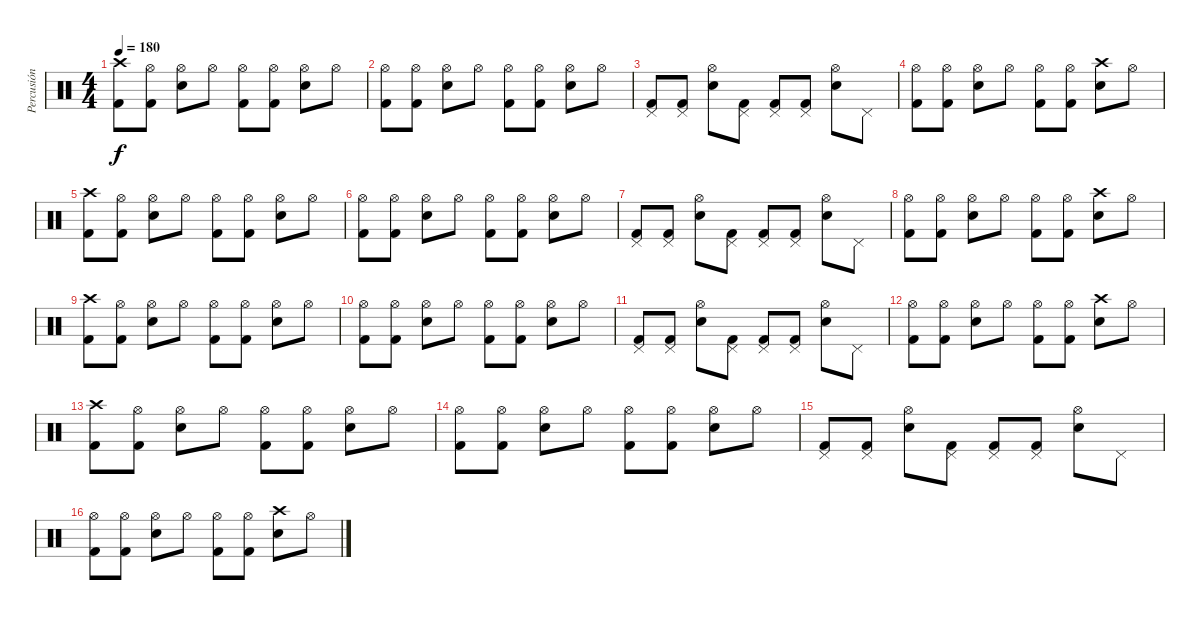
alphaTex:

\track ("Percusión" "Percusión") {instrument percussion}
\staff {score}
\articulation defaults
\ts (4 4)
\tempo 180
\clef neutral
\ks c
("Crash high (hit)" "Kick (hit) 2").8{dy f} ("Hi-Hat (open)" "Kick (hit) 2").8 ("Hi-Hat (open)" "Snare (hit) 2").8 "Hi-Hat (open)".8 ("Hi-Hat (open)" "Kick (hit) 2").8 ("Hi-Hat (open)" "Kick (hit) 2").8 ("Hi-Hat (open)" "Snare (hit) 2").8 "Hi-Hat (open)".8 |
("Hi-Hat (open)" "Kick (hit) 2").8 ("Hi-Hat (open)" "Kick (hit) 2").8 ("Hi-Hat (open)" "Snare (hit) 2").8 "Hi-Hat (open)".8 ("Hi-Hat (open)" "Kick (hit) 2").8 ("Hi-Hat (open)" "Kick (hit) 2").8 ("Hi-Hat (open)" "Snare (hit) 2").8 "Hi-Hat (open)".8 |
("Pedal Hi-Hat (hit)" "Kick (hit) 2").8 ("Pedal Hi-Hat (hit)" "Kick (hit) 2").8 ("Hi-Hat (open)" "Snare (hit) 2").8 ("Pedal Hi-Hat (hit)" "Kick (hit) 2").8 ("Pedal Hi-Hat (hit)" "Kick (hit) 2").8 ("Pedal Hi-Hat (hit)" "Kick (hit) 2").8 ("Hi-Hat (open)" "Snare (hit) 2").8 "Pedal Hi-Hat (hit)".8 |
("Hi-Hat (open)" "Kick (hit) 2").8 ("Hi-Hat (open)" "Kick (hit) 2").8 ("Hi-Hat (open)" "Snare (hit) 2").8 "Hi-Hat (open)".8 ("Hi-Hat (open)" "Kick (hit) 2").8 ("Hi-Hat (open)" "Kick (hit) 2").8 ("Crash high (hit)" "Snare (hit) 2").8 "Hi-Hat (open)".8 |
("Crash high (hit)" "Kick (hit) 2").8 ("Hi-Hat (open)" "Kick (hit) 2").8 ("Hi-Hat (open)" "Snare (hit) 2").8 "Hi-Hat (open)".8 ("Hi-Hat (open)" "Kick (hit) 2").8 ("Hi-Hat (open)" "Kick (hit) 2").8 ("Hi-Hat (open)" "Snare (hit) 2").8 "Hi-Hat (open)".8 |
("Hi-Hat (open)" "Kick (hit) 2").8 ("Hi-Hat (open)" "Kick (hit) 2").8 ("Hi-Hat (open)" "Snare (hit) 2").8 "Hi-Hat (open)".8 ("Hi-Hat (open)" "Kick (hit) 2").8 ("Hi-Hat (open)" "Kick (hit) 2").8 ("Hi-Hat (open)" "Snare (hit) 2").8 "Hi-Hat (open)".8 |
("Pedal Hi-Hat (hit)" "Kick (hit) 2").8 ("Pedal Hi-Hat (hit)" "Kick (hit) 2").8 ("Hi-Hat (open)" "Snare (hit) 2").8 ("Pedal Hi-Hat (hit)" "Kick (hit) 2").8 ("Pedal Hi-Hat (hit)" "Kick (hit) 2").8 ("Pedal Hi-Hat (hit)" "Kick (hit) 2").8 ("Hi-Hat (open)" "Snare (hit) 2").8 "Pedal Hi-Hat (hit)".8 |
("Hi-Hat (open)" "Kick (hit) 2").8 ("Hi-Hat (open)" "Kick (hit) 2").8 ("Hi-Hat (open)" "Snare (hit) 2").8 "Hi-Hat (open)".8 ("Hi-Hat (open)" "Kick (hit) 2").8 ("Hi-Hat (open)" "Kick (hit) 2").8 ("Crash high (hit)" "Snare (hit) 2").8 "Hi-Hat (open)".8 |
("Crash high (hit)" "Kick (hit) 2").8 ("Hi-Hat (open)" "Kick (hit) 2").8 ("Hi-Hat (open)" "Snare (hit) 2").8 "Hi-Hat (open)".8 ("Hi-Hat (open)" "Kick (hit) 2").8 ("Hi-Hat (open)" "Kick (hit) 2").8 ("Hi-Hat (open)" "Snare (hit) 2").8 "Hi-Hat (open)".8 |
("Hi-Hat (open)" "Kick (hit) 2").8 ("Hi-Hat (open)" "Kick (hit) 2").8 ("Hi-Hat (open)" "Snare (hit) 2").8 "Hi-Hat (open)".8 ("Hi-Hat (open)" "Kick (hit) 2").8 ("Hi-Hat (open)" "Kick (hit) 2").8 ("Hi-Hat (open)" "Snare (hit) 2").8 "Hi-Hat (open)".8 |
("Pedal Hi-Hat (hit)" "Kick (hit) 2").8 ("Pedal Hi-Hat (hit)" "Kick (hit) 2").8 ("Hi-Hat (open)" "Snare (hit) 2").8 ("Pedal Hi-Hat (hit)" "Kick (hit) 2").8 ("Pedal Hi-Hat (hit)" "Kick (hit) 2").8 ("Pedal Hi-Hat (hit)" "Kick (hit) 2").8 ("Hi-Hat (open)" "Snare (hit) 2").8 "Pedal Hi-Hat (hit)".8 |
("Hi-Hat (open)" "Kick (hit) 2").8 ("Hi-Hat (open)" "Kick (hit) 2").8 ("Hi-Hat (open)" "Snare (hit) 2").8 "Hi-Hat (open)".8 ("Hi-Hat (open)" "Kick (hit) 2").8 ("Hi-Hat (open)" "Kick (hit) 2").8 ("Crash high (hit)" "Snare (hit) 2").8 "Hi-Hat (open)".8 |
("Crash high (hit)" "Kick (hit) 2").8 ("Hi-Hat (open)" "Kick (hit) 2").8 ("Hi-Hat (open)" "Snare (hit) 2").8 "Hi-Hat (open)".8 ("Hi-Hat (open)" "Kick (hit) 2").8 ("Hi-Hat (open)" "Kick (hit) 2").8 ("Hi-Hat (open)" "Snare (hit) 2").8 "Hi-Hat (open)".8 |
("Hi-Hat (open)" "Kick (hit) 2").8 ("Hi-Hat (open)" "Kick (hit) 2").8 ("Hi-Hat (open)" "Snare (hit) 2").8 "Hi-Hat (open)".8 ("Hi-Hat (open)" "Kick (hit) 2").8 ("Hi-Hat (open)" "Kick (hit) 2").8 ("Hi-Hat (open)" "Snare (hit) 2").8 "Hi-Hat (open)".8 |
("Pedal Hi-Hat (hit)" "Kick (hit) 2").8 ("Pedal Hi-Hat (hit)" "Kick (hit) 2").8 ("Hi-Hat (open)" "Snare (hit) 2").8 ("Pedal Hi-Hat (hit)" "Kick (hit) 2").8 ("Pedal Hi-Hat (hit)" "Kick (hit) 2").8 ("Pedal Hi-Hat (hit)" "Kick (hit) 2").8 ("Hi-Hat (open)" "Snare (hit) 2").8 "Pedal Hi-Hat (hit)".8 |
("Hi-Hat (open)" "Kick (hit) 2").8 ("Hi-Hat (open)" "Kick (hit) 2").8 ("Hi-Hat (open)" "Snare (hit) 2").8 "Hi-Hat (open)".8 ("Hi-Hat (open)" "Kick (hit) 2").8 ("Hi-Hat (open)" "Kick (hit) 2").8 ("Crash high (hit)" "Snare (hit) 2").8 "Hi-Hat (open)".8
